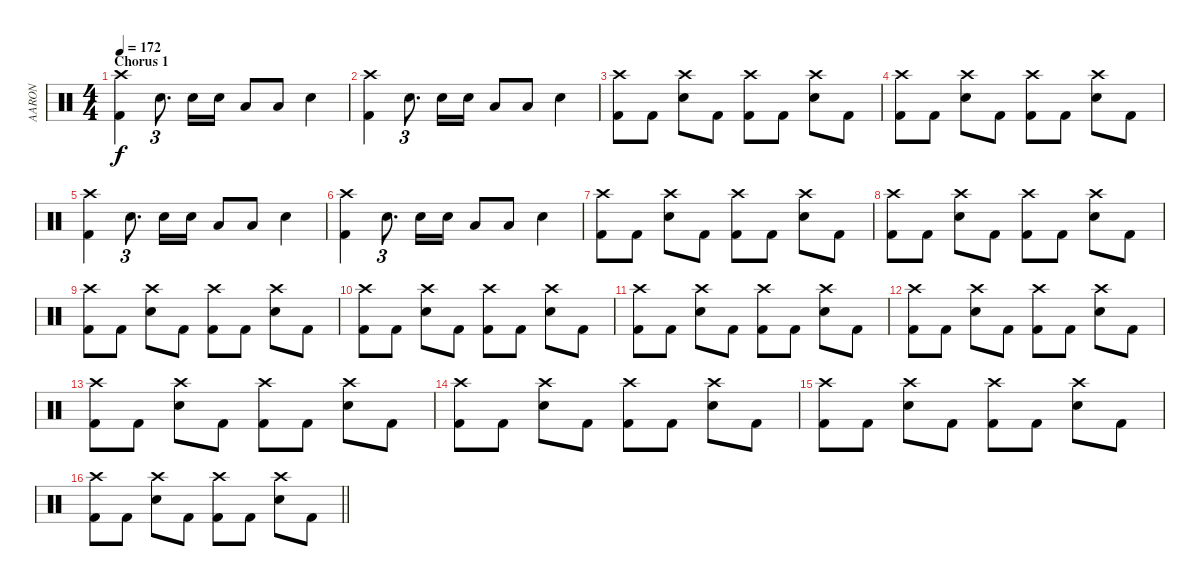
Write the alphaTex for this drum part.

\track ("AARON" "AARON") {instrument percussion}
\staff {score}
\articulation defaults
\ts (4 4)
\section ("" "Chorus 1")
\tempo 172
\clef neutral
\ks c
("Crash high (hit)" "Kick (hit) 2").4{dy f} "Electric Snare (hit)".8{d tu (3 2)} "Electric Snare (hit)".16 "Electric Snare (hit)".16 "Low Tom (hit)".8 "Low Tom (hit)".8 "Electric Snare (hit)".4 |
("Crash high (hit)" "Kick (hit) 2").4 "Electric Snare (hit)".8{d tu (3 2)} "Electric Snare (hit)".16 "Electric Snare (hit)".16 "Low Tom (hit)".8 "Low Tom (hit)".8 "Electric Snare (hit)".4 |
("Crash high (hit)" "Kick (hit) 2").8 "Kick (hit) 2".8 ("Crash high (hit)" "Electric Snare (hit)").8 "Kick (hit) 2".8 ("Crash high (hit)" "Kick (hit) 2").8 "Kick (hit) 2".8 ("Crash high (hit)" "Electric Snare (hit)").8 "Kick (hit) 2".8 |
("Crash high (hit)" "Kick (hit) 2").8 "Kick (hit) 2".8 ("Crash high (hit)" "Electric Snare (hit)").8 "Kick (hit) 2".8 ("Crash high (hit)" "Kick (hit) 2").8 "Kick (hit) 2".8 ("Crash high (hit)" "Electric Snare (hit)").8 "Kick (hit) 2".8 |
("Crash high (hit)" "Kick (hit) 2").4 "Electric Snare (hit)".8{d tu (3 2)} "Electric Snare (hit)".16 "Electric Snare (hit)".16 "Low Tom (hit)".8 "Low Tom (hit)".8 "Electric Snare (hit)".4 |
("Crash high (hit)" "Kick (hit) 2").4 "Electric Snare (hit)".8{d tu (3 2)} "Electric Snare (hit)".16 "Electric Snare (hit)".16 "Low Tom (hit)".8 "Low Tom (hit)".8 "Electric Snare (hit)".4 |
("Crash high (hit)" "Kick (hit) 2").8 "Kick (hit) 2".8 ("Crash high (hit)" "Electric Snare (hit)").8 "Kick (hit) 2".8 ("Crash high (hit)" "Kick (hit) 2").8 "Kick (hit) 2".8 ("Crash high (hit)" "Electric Snare (hit)").8 "Kick (hit) 2".8 |
("Crash high (hit)" "Kick (hit) 2").8 "Kick (hit) 2".8 ("Crash high (hit)" "Electric Snare (hit)").8 "Kick (hit) 2".8 ("Crash high (hit)" "Kick (hit) 2").8 "Kick (hit) 2".8 ("Crash high (hit)" "Electric Snare (hit)").8 "Kick (hit) 2".8 |
("Crash high (hit)" "Kick (hit) 2").8 "Kick (hit) 2".8 ("Crash high (hit)" "Electric Snare (hit)").8 "Kick (hit) 2".8 ("Crash high (hit)" "Kick (hit) 2").8 "Kick (hit) 2".8 ("Crash high (hit)" "Electric Snare (hit)").8 "Kick (hit) 2".8 |
("Crash high (hit)" "Kick (hit) 2").8 "Kick (hit) 2".8 ("Crash high (hit)" "Electric Snare (hit)").8 "Kick (hit) 2".8 ("Crash high (hit)" "Kick (hit) 2").8 "Kick (hit) 2".8 ("Crash high (hit)" "Electric Snare (hit)").8 "Kick (hit) 2".8 |
("Crash high (hit)" "Kick (hit) 2").8 "Kick (hit) 2".8 ("Crash high (hit)" "Electric Snare (hit)").8 "Kick (hit) 2".8 ("Crash high (hit)" "Kick (hit) 2").8 "Kick (hit) 2".8 ("Crash high (hit)" "Electric Snare (hit)").8 "Kick (hit) 2".8 |
("Crash high (hit)" "Kick (hit) 2").8 "Kick (hit) 2".8 ("Crash high (hit)" "Electric Snare (hit)").8 "Kick (hit) 2".8 ("Crash high (hit)" "Kick (hit) 2").8 "Kick (hit) 2".8 ("Crash high (hit)" "Electric Snare (hit)").8 "Kick (hit) 2".8 |
("Crash high (hit)" "Kick (hit) 2").8 "Kick (hit) 2".8 ("Crash high (hit)" "Electric Snare (hit)").8 "Kick (hit) 2".8 ("Crash high (hit)" "Kick (hit) 2").8 "Kick (hit) 2".8 ("Crash high (hit)" "Electric Snare (hit)").8 "Kick (hit) 2".8 |
("Crash high (hit)" "Kick (hit) 2").8 "Kick (hit) 2".8 ("Crash high (hit)" "Electric Snare (hit)").8 "Kick (hit) 2".8 ("Crash high (hit)" "Kick (hit) 2").8 "Kick (hit) 2".8 ("Crash high (hit)" "Electric Snare (hit)").8 "Kick (hit) 2".8 |
("Crash high (hit)" "Kick (hit) 2").8 "Kick (hit) 2".8 ("Crash high (hit)" "Electric Snare (hit)").8 "Kick (hit) 2".8 ("Crash high (hit)" "Kick (hit) 2").8 "Kick (hit) 2".8 ("Crash high (hit)" "Electric Snare (hit)").8 "Kick (hit) 2".8 |
\barLineRight lightlight
("Crash high (hit)" "Kick (hit) 2").8 "Kick (hit) 2".8 ("Crash high (hit)" "Electric Snare (hit)").8 "Kick (hit) 2".8 ("Crash high (hit)" "Kick (hit) 2").8 "Kick (hit) 2".8 ("Crash high (hit)" "Electric Snare (hit)").8 "Kick (hit) 2".8
